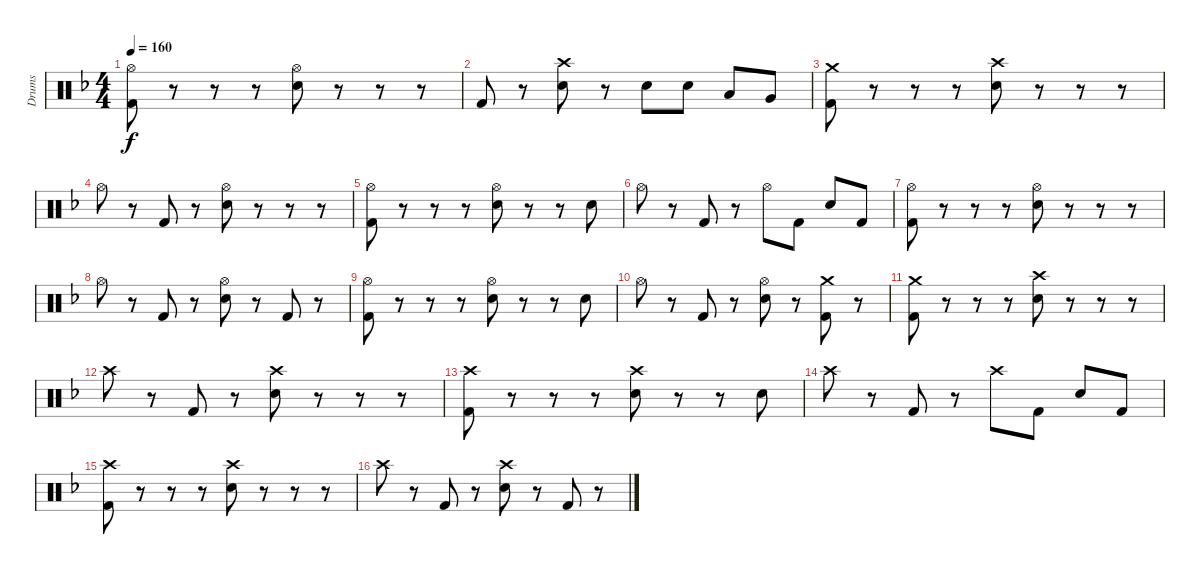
\track ("Drums" "Drums") {instrument percussion}
\staff {score}
\articulation defaults
\ts (4 4)
\tempo 160
\clef neutral
\ks dminor
("Hi-Hat (open)" "Kick (hit) 2").8{dy f} r.8 r.8 r.8 ("Hi-Hat (open)" "Electric Snare (hit)").8 r.8 r.8 r.8 |
"Kick (hit) 2".8 r.8 ("Crash high (hit)" "Electric Snare (hit)").8 r.8 "Electric Snare (hit)".8 "Electric Snare (hit)".8 "Low Tom (hit)".8 "Very Low Tom (hit)".8 |
("Crash medium (hit)" "Kick (hit) 2").8 r.8 r.8 r.8 ("Crash high (hit)" "Electric Snare (hit)").8 r.8 r.8 r.8 |
"Hi-Hat (open)".8 r.8 "Kick (hit) 2".8 r.8 ("Hi-Hat (open)" "Electric Snare (hit)").8 r.8 r.8 r.8 |
("Hi-Hat (open)" "Kick (hit) 2").8 r.8 r.8 r.8 ("Hi-Hat (open)" "Electric Snare (hit)").8 r.8 r.8 "Electric Snare (hit)".8 |
"Hi-Hat (open)".8 r.8 "Kick (hit) 2".8 r.8 "Hi-Hat (open)".8 "Kick (hit) 2".8 "Electric Snare (hit)".8 "Kick (hit) 2".8 |
("Hi-Hat (open)" "Kick (hit) 2").8 r.8 r.8 r.8 ("Hi-Hat (open)" "Electric Snare (hit)").8 r.8 r.8 r.8 |
"Hi-Hat (open)".8 r.8 "Kick (hit) 2".8 r.8 ("Hi-Hat (open)" "Electric Snare (hit)").8 r.8 "Kick (hit) 2".8 r.8 |
("Hi-Hat (open)" "Kick (hit) 2").8 r.8 r.8 r.8 ("Hi-Hat (open)" "Electric Snare (hit)").8 r.8 r.8 "Electric Snare (hit)".8 |
"Hi-Hat (open)".8 r.8 "Kick (hit) 2".8 r.8 ("Hi-Hat (open)" "Electric Snare (hit)").8 r.8 ("Crash medium (hit)" "Kick (hit) 2").8 r.8 |
("Crash medium (hit)" "Kick (hit) 2").8 r.8 r.8 r.8 ("Crash high (hit)" "Electric Snare (hit)").8 r.8 r.8 r.8 |
"Crash high (hit)".8 r.8 "Kick (hit) 2".8 r.8 ("Crash high (hit)" "Electric Snare (hit)").8 r.8 r.8 r.8 |
("Crash high (hit)" "Kick (hit) 2").8 r.8 r.8 r.8 ("Crash high (hit)" "Electric Snare (hit)").8 r.8 r.8 "Electric Snare (hit)".8 |
"Crash high (hit)".8 r.8 "Kick (hit) 2".8 r.8 "Crash high (hit)".8 "Kick (hit) 2".8 "Electric Snare (hit)".8 "Kick (hit) 2".8 |
("Crash high (hit)" "Kick (hit) 2").8 r.8 r.8 r.8 ("Crash high (hit)" "Electric Snare (hit)").8 r.8 r.8 r.8 |
"Crash high (hit)".8 r.8 "Kick (hit) 2".8 r.8 ("Crash high (hit)" "Electric Snare (hit)").8 r.8 "Kick (hit) 2".8 r.8
